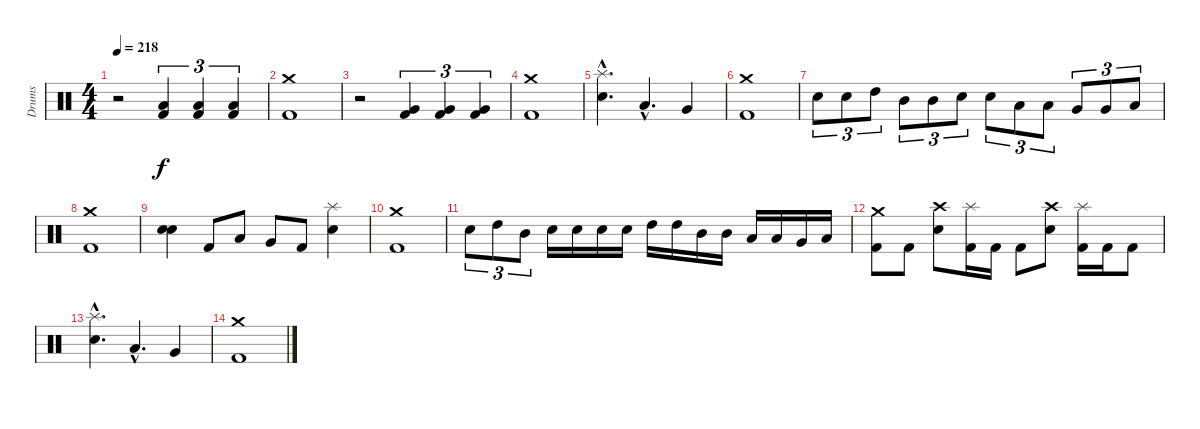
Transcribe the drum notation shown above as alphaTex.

\track ("Drums" "Drums") {instrument percussion}
\staff {score}
\articulation defaults
\ts (4 4)
\tempo 218
\clef neutral
\ks c
r.2{dy f} ("Low Tom (hit)" "Kick (hit) 2").4{tu (3 2)} ("Low Tom (hit)" "Kick (hit) 2").4{tu (3 2)} ("Low Tom (hit)" "Kick (hit) 2").4{tu (3 2)} |
("Crash medium (hit)" "Kick (hit) 2").1 |
r.2 ("Very Low Tom (hit)" "Kick (hit) 2").4{tu (3 2)} ("Very Low Tom (hit)" "Kick (hit) 2").4{tu (3 2)} ("Very Low Tom (hit)" "Kick (hit) 2").4{tu (3 2)} |
("Crash medium (hit)" "Kick (hit) 2").1 |
("Splash (hit)"{hac} "Snare (hit) 2"{hac}).4{d} "Low Tom (hit)"{hac}.4{d} "Very Low Tom (hit)".4 |
("Crash medium (hit)" "Kick (hit) 2").1 |
"Snare (hit) 2".8{tu (3 2)} "Snare (hit) 2".8{tu (3 2)} "High Tom (hit)".8{tu (3 2)} "Mid Tom (hit)".8{tu (3 2)} "Mid Tom (hit)".8{tu (3 2)} "Snare (hit) 2".8{tu (3 2)} "Snare (hit) 2".8{tu (3 2)} "Low Tom (hit)".8{tu (3 2)} "Low Tom (hit)".8{tu (3 2)} "Very Low Tom (hit)".8{tu (3 2)} "Very Low Tom (hit)".8{tu (3 2)} "Low Floor Tom (hit)".8{tu (3 2)} |
("Crash medium (hit)" "Kick (hit) 2").1 |
("Snare (hit) 2" "Snare (hit) 2").4{bu 240} "Kick (hit) 2".8 "Low Tom (hit)".8 "Very Low Tom (hit)".8 "Kick (hit) 2".8 ("Splash (hit)" "Snare (hit) 2").4 |
("Crash medium (hit)" "Kick (hit) 2").1 |
"Snare (hit) 2".8{tu (3 2)} "High Tom (hit)".8{tu (3 2)} "Mid Tom (hit)".8{tu (3 2)} "Snare (hit) 2".16 "Snare (hit) 2".16 "Snare (hit) 2".16 "Snare (hit) 2".16 "High Tom (hit)".16 "High Tom (hit)".16 "Mid Tom (hit)".16 "Mid Tom (hit)".16 "Low Tom (hit)".16 "Low Tom (hit)".16 "Very Low Tom (hit)".16 "Low Floor Tom (hit)".16 |
("Crash medium (hit)" "Kick (hit) 2").8 "Kick (hit) 2".8 ("Crash high (hit)" "Snare (hit) 2").8 ("Splash (hit)" "Kick (hit) 2").16 "Kick (hit) 2".16 "Kick (hit) 2".8 ("Crash high (hit)" "Snare (hit) 2").8 ("Splash (hit)" "Kick (hit) 2").16 "Kick (hit) 2".16 "Kick (hit) 2".8 |
("Splash (hit)"{hac} "Snare (hit) 2"{hac}).4{d} "Low Tom (hit)"{hac}.4{d} "Very Low Tom (hit)".4 |
("Crash medium (hit)" "Kick (hit) 2").1
